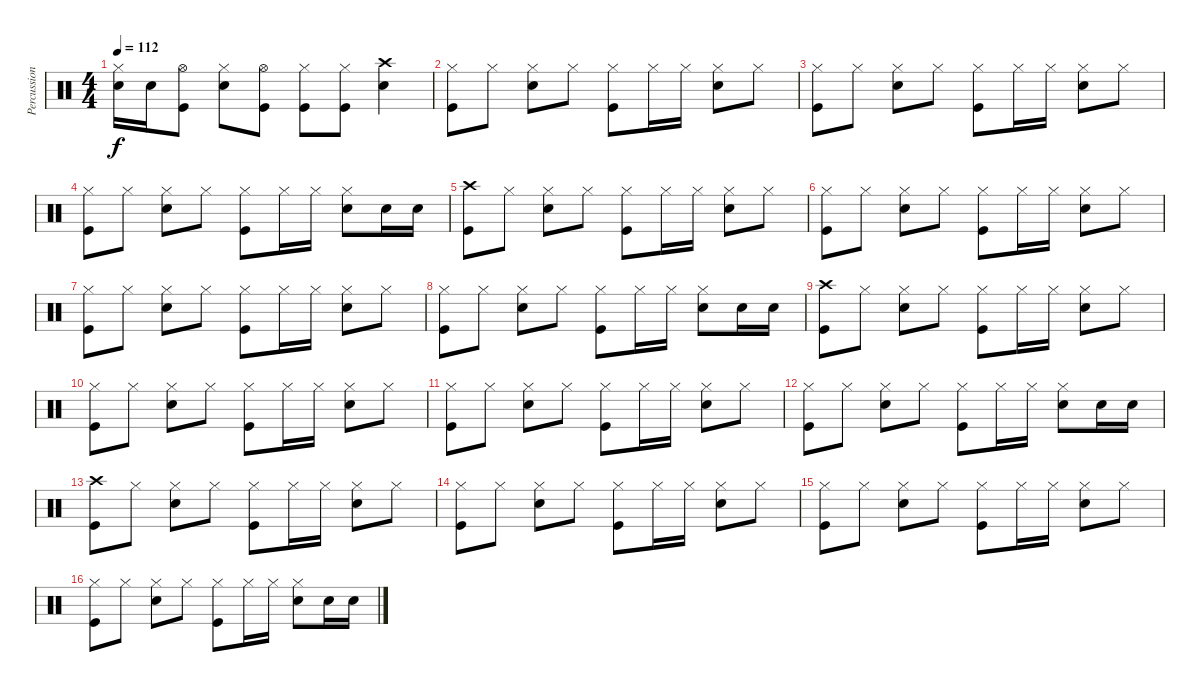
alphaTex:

\track ("Percussion" "Percussion") {instrument percussion}
\staff {score}
\articulation defaults
\ts (4 4)
\tempo 112
\clef neutral
\ks c
("Hi-Hat (closed)" "Snare (hit) 2").16{dy f} "Snare (hit) 2".16 ("Hi-Hat (open)" "Kick (hit)").8 ("Hi-Hat (closed)" "Snare (hit) 2").8 ("Hi-Hat (open)" "Kick (hit)").8 ("Hi-Hat (closed)" "Kick (hit)").8 ("Hi-Hat (closed)" "Kick (hit)").8 ("Crash high (hit)" "Snare (hit) 2").4 |
("Hi-Hat (closed)" "Kick (hit)").8 "Hi-Hat (closed)".8 ("Hi-Hat (closed)" "Snare (hit) 2").8 "Hi-Hat (closed)".8 ("Hi-Hat (closed)" "Kick (hit)").8 "Hi-Hat (closed)".16 "Hi-Hat (closed)".16 ("Hi-Hat (closed)" "Snare (hit) 2").8 "Hi-Hat (closed)".8 |
("Hi-Hat (closed)" "Kick (hit)").8 "Hi-Hat (closed)".8 ("Hi-Hat (closed)" "Snare (hit) 2").8 "Hi-Hat (closed)".8 ("Hi-Hat (closed)" "Kick (hit)").8 "Hi-Hat (closed)".16 "Hi-Hat (closed)".16 ("Hi-Hat (closed)" "Snare (hit) 2").8 "Hi-Hat (closed)".8 |
("Hi-Hat (closed)" "Kick (hit)").8 "Hi-Hat (closed)".8 ("Hi-Hat (closed)" "Snare (hit) 2").8 "Hi-Hat (closed)".8 ("Hi-Hat (closed)" "Kick (hit)").8 "Hi-Hat (closed)".16 "Hi-Hat (closed)".16 ("Hi-Hat (closed)" "Snare (hit) 2").8 "Snare (hit) 2".16 "Snare (hit) 2".16 |
("Crash high (hit)" "Kick (hit)").8 "Hi-Hat (closed)".8 ("Hi-Hat (closed)" "Snare (hit) 2").8 "Hi-Hat (closed)".8 ("Hi-Hat (closed)" "Kick (hit)").8 "Hi-Hat (closed)".16 "Hi-Hat (closed)".16 ("Hi-Hat (closed)" "Snare (hit) 2").8 "Hi-Hat (closed)".8 |
("Hi-Hat (closed)" "Kick (hit)").8 "Hi-Hat (closed)".8 ("Hi-Hat (closed)" "Snare (hit) 2").8 "Hi-Hat (closed)".8 ("Hi-Hat (closed)" "Kick (hit)").8 "Hi-Hat (closed)".16 "Hi-Hat (closed)".16 ("Hi-Hat (closed)" "Snare (hit) 2").8 "Hi-Hat (closed)".8 |
("Hi-Hat (closed)" "Kick (hit)").8 "Hi-Hat (closed)".8 ("Hi-Hat (closed)" "Snare (hit) 2").8 "Hi-Hat (closed)".8 ("Hi-Hat (closed)" "Kick (hit)").8 "Hi-Hat (closed)".16 "Hi-Hat (closed)".16 ("Hi-Hat (closed)" "Snare (hit) 2").8 "Hi-Hat (closed)".8 |
("Hi-Hat (closed)" "Kick (hit)").8 "Hi-Hat (closed)".8 ("Hi-Hat (closed)" "Snare (hit) 2").8 "Hi-Hat (closed)".8 ("Hi-Hat (closed)" "Kick (hit)").8 "Hi-Hat (closed)".16 "Hi-Hat (closed)".16 ("Hi-Hat (closed)" "Snare (hit) 2").8 "Snare (hit) 2".16 "Snare (hit) 2".16 |
("Crash high (hit)" "Kick (hit)").8 "Hi-Hat (closed)".8 ("Hi-Hat (closed)" "Snare (hit) 2").8 "Hi-Hat (closed)".8 ("Hi-Hat (closed)" "Kick (hit)").8 "Hi-Hat (closed)".16 "Hi-Hat (closed)".16 ("Hi-Hat (closed)" "Snare (hit) 2").8 "Hi-Hat (closed)".8 |
("Hi-Hat (closed)" "Kick (hit)").8 "Hi-Hat (closed)".8 ("Hi-Hat (closed)" "Snare (hit) 2").8 "Hi-Hat (closed)".8 ("Hi-Hat (closed)" "Kick (hit)").8 "Hi-Hat (closed)".16 "Hi-Hat (closed)".16 ("Hi-Hat (closed)" "Snare (hit) 2").8 "Hi-Hat (closed)".8 |
("Hi-Hat (closed)" "Kick (hit)").8 "Hi-Hat (closed)".8 ("Hi-Hat (closed)" "Snare (hit) 2").8 "Hi-Hat (closed)".8 ("Hi-Hat (closed)" "Kick (hit)").8 "Hi-Hat (closed)".16 "Hi-Hat (closed)".16 ("Hi-Hat (closed)" "Snare (hit) 2").8 "Hi-Hat (closed)".8 |
("Hi-Hat (closed)" "Kick (hit)").8 "Hi-Hat (closed)".8 ("Hi-Hat (closed)" "Snare (hit) 2").8 "Hi-Hat (closed)".8 ("Hi-Hat (closed)" "Kick (hit)").8 "Hi-Hat (closed)".16 "Hi-Hat (closed)".16 ("Hi-Hat (closed)" "Snare (hit) 2").8 "Snare (hit) 2".16 "Snare (hit) 2".16 |
("Crash high (hit)" "Kick (hit)").8 "Hi-Hat (closed)".8 ("Hi-Hat (closed)" "Snare (hit) 2").8 "Hi-Hat (closed)".8 ("Hi-Hat (closed)" "Kick (hit)").8 "Hi-Hat (closed)".16 "Hi-Hat (closed)".16 ("Hi-Hat (closed)" "Snare (hit) 2").8 "Hi-Hat (closed)".8 |
("Hi-Hat (closed)" "Kick (hit)").8 "Hi-Hat (closed)".8 ("Hi-Hat (closed)" "Snare (hit) 2").8 "Hi-Hat (closed)".8 ("Hi-Hat (closed)" "Kick (hit)").8 "Hi-Hat (closed)".16 "Hi-Hat (closed)".16 ("Hi-Hat (closed)" "Snare (hit) 2").8 "Hi-Hat (closed)".8 |
("Hi-Hat (closed)" "Kick (hit)").8 "Hi-Hat (closed)".8 ("Hi-Hat (closed)" "Snare (hit) 2").8 "Hi-Hat (closed)".8 ("Hi-Hat (closed)" "Kick (hit)").8 "Hi-Hat (closed)".16 "Hi-Hat (closed)".16 ("Hi-Hat (closed)" "Snare (hit) 2").8 "Hi-Hat (closed)".8 |
("Hi-Hat (closed)" "Kick (hit)").8 "Hi-Hat (closed)".8 ("Hi-Hat (closed)" "Snare (hit) 2").8 "Hi-Hat (closed)".8 ("Hi-Hat (closed)" "Kick (hit)").8 "Hi-Hat (closed)".16 "Hi-Hat (closed)".16 ("Hi-Hat (closed)" "Snare (hit) 2").8 "Snare (hit) 2".16 "Snare (hit) 2".16
